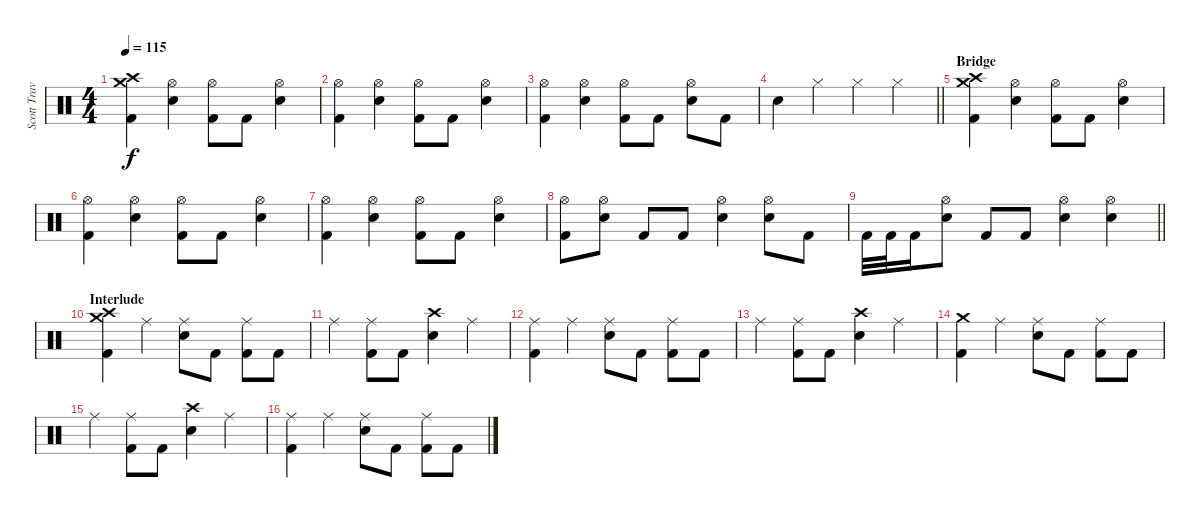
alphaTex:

\track ("Scott Travis" "Scott Trav") {instrument percussion}
\staff {score}
\articulation defaults
\ts (4 4)
\tempo 115
\clef neutral
\ks c
("Crash medium (hit)" "Crash high (hit)" "Kick (hit) 2").4{dy f} ("Hi-Hat (open)" "Snare (hit) 2").4 ("Hi-Hat (open)" "Kick (hit) 2").8 "Kick (hit) 2".8 ("Hi-Hat (open)" "Snare (hit) 2").4 |
("Hi-Hat (open)" "Kick (hit) 2").4 ("Hi-Hat (open)" "Snare (hit) 2").4 ("Hi-Hat (open)" "Kick (hit) 2").8 "Kick (hit) 2".8 ("Hi-Hat (open)" "Snare (hit) 2").4 |
("Hi-Hat (open)" "Kick (hit) 2").4 ("Hi-Hat (open)" "Snare (hit) 2").4 ("Hi-Hat (open)" "Kick (hit) 2").8 "Kick (hit) 2".8 ("Hi-Hat (open)" "Snare (hit) 2").8 "Kick (hit) 2".8 |
\barLineRight lightlight "Snare (hit) 2".4 "Hi-Hat (closed)".4 "Hi-Hat (closed)".4 "Hi-Hat (closed)".4
|
\section ("" "Bridge")
("Crash medium (hit)" "Crash high (hit)" "Kick (hit) 2").4 ("Hi-Hat (open)" "Snare (hit) 2").4 ("Hi-Hat (open)" "Kick (hit) 2").8 "Kick (hit) 2".8 ("Hi-Hat (open)" "Snare (hit) 2").4 |
("Hi-Hat (open)" "Kick (hit) 2").4 ("Hi-Hat (open)" "Snare (hit) 2").4 ("Hi-Hat (open)" "Kick (hit) 2").8 "Kick (hit) 2".8 ("Hi-Hat (open)" "Snare (hit) 2").4 |
("Hi-Hat (open)" "Kick (hit) 2").4 ("Hi-Hat (open)" "Snare (hit) 2").4 ("Hi-Hat (open)" "Kick (hit) 2").8 "Kick (hit) 2".8 ("Hi-Hat (open)" "Snare (hit) 2").4 |
("Hi-Hat (open)" "Kick (hit) 2").8 ("Hi-Hat (open)" "Snare (hit) 2").8 "Kick (hit) 2".8 "Kick (hit) 2".8 ("Hi-Hat (open)" "Snare (hit) 2").4 ("Hi-Hat (open)" "Snare (hit) 2").8 "Kick (hit) 2".8 |
\barLineRight lightlight "Kick (hit) 2".32 "Kick (hit) 2".32 "Kick (hit) 2".16
("Hi-Hat (open)" "Snare (hit) 2").8 "Kick (hit) 2".8 "Kick (hit) 2".8 ("Hi-Hat (open)" "Snare (hit) 2").4 ("Hi-Hat (open)" "Snare (hit) 2").4 |
\section ("" "Interlude")
("Crash medium (hit)" "Crash high (hit)" "Kick (hit) 2").4 "Ride (middle)".4 ("Ride (middle)" "Snare (hit) 2").8 "Kick (hit) 2".8 ("Ride (middle)" "Kick (hit) 2").8 "Kick (hit) 2".8 |
"Ride (middle)".4 ("Ride (middle)" "Kick (hit) 2").8 "Kick (hit) 2".8 ("Crash high (hit)" "Snare (hit) 2").4 "Ride (middle)".4 |
("Ride (middle)" "Kick (hit) 2").4 "Ride (middle)".4 ("Ride (middle)" "Snare (hit) 2").8 "Kick (hit) 2".8 ("Ride (middle)" "Kick (hit) 2").8 "Kick (hit) 2".8 |
"Ride (middle)".4 ("Ride (middle)" "Kick (hit) 2").8 "Kick (hit) 2".8 ("Crash high (hit)" "Snare (hit) 2").4 "Ride (middle)".4 |
("Crash medium (hit)" "Kick (hit) 2").4 "Ride (middle)".4 ("Ride (middle)" "Snare (hit) 2").8 "Kick (hit) 2".8 ("Ride (middle)" "Kick (hit) 2").8 "Kick (hit) 2".8 |
"Ride (middle)".4 ("Ride (middle)" "Kick (hit) 2").8 "Kick (hit) 2".8 ("Crash high (hit)" "Snare (hit) 2").4 "Ride (middle)".4 |
("Ride (middle)" "Kick (hit) 2").4 "Ride (middle)".4 ("Ride (middle)" "Snare (hit) 2").8 "Kick (hit) 2".8 ("Ride (middle)" "Kick (hit) 2").8 "Kick (hit) 2".8
